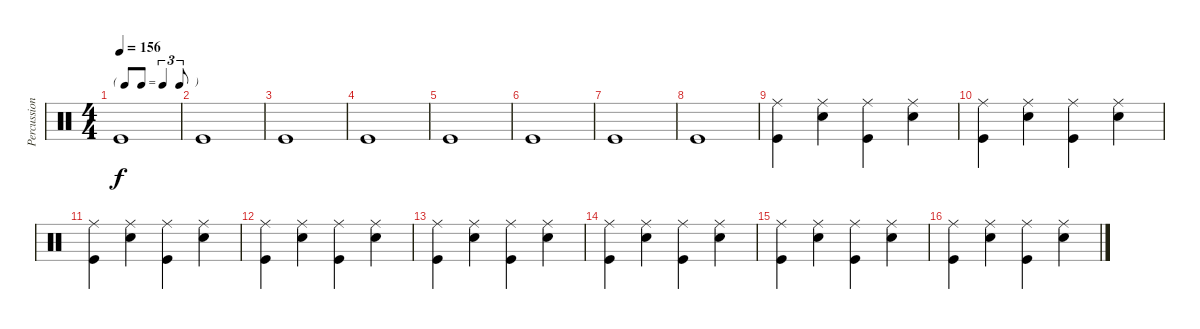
\track ("Percussion" "Percussion") {instrument percussion}
\staff {score}
\articulation defaults
\ts (4 4)
\tf triplet8th
\tempo 156
\clef neutral
\ks c "Kick (hit)".1{dy f}
|
"Kick (hit)".1 |
"Kick (hit)".1 |
"Kick (hit)".1 |
"Kick (hit)".1 |
"Kick (hit)".1 |
"Kick (hit)".1 |
"Kick (hit)".1 |
("Ride (middle)" "Kick (hit)").4 ("Snare (hit) 2" "Ride (middle)").4 ("Ride (middle)" "Kick (hit)").4 ("Snare (hit) 2" "Ride (middle)").4 |
("Ride (middle)" "Kick (hit)").4 ("Snare (hit) 2" "Ride (middle)").4 ("Ride (middle)" "Kick (hit)").4 ("Snare (hit) 2" "Ride (middle)").4 |
("Ride (middle)" "Kick (hit)").4 ("Snare (hit) 2" "Ride (middle)").4 ("Ride (middle)" "Kick (hit)").4 ("Snare (hit) 2" "Ride (middle)").4 |
("Ride (middle)" "Kick (hit)").4 ("Snare (hit) 2" "Ride (middle)").4 ("Ride (middle)" "Kick (hit)").4 ("Snare (hit) 2" "Ride (middle)").4 |
("Ride (middle)" "Kick (hit)").4 ("Snare (hit) 2" "Ride (middle)").4 ("Ride (middle)" "Kick (hit)").4 ("Snare (hit) 2" "Ride (middle)").4 |
("Ride (middle)" "Kick (hit)").4 ("Snare (hit) 2" "Ride (middle)").4 ("Ride (middle)" "Kick (hit)").4 ("Snare (hit) 2" "Ride (middle)").4 |
("Ride (middle)" "Kick (hit)").4 ("Snare (hit) 2" "Ride (middle)").4 ("Ride (middle)" "Kick (hit)").4 ("Snare (hit) 2" "Ride (middle)").4 |
("Ride (middle)" "Kick (hit)").4 ("Snare (hit) 2" "Ride (middle)").4 ("Ride (middle)" "Kick (hit)").4 ("Snare (hit) 2" "Ride (middle)").4
